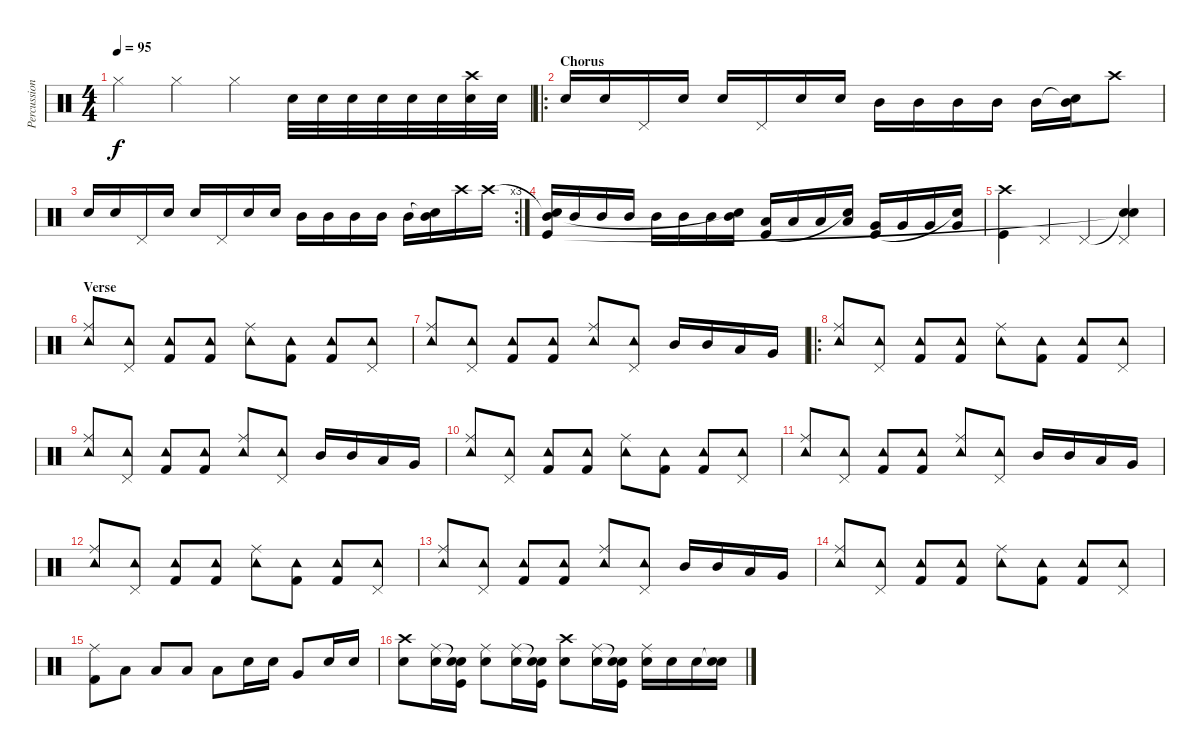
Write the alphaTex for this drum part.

\track ("Percussions" "Percussion") {instrument percussion}
\staff {score}
\articulation defaults
\ts (4 4)
\tempo 95
\clef neutral
\ks c "Hi-Hat (closed)".4{dy f} "Hi-Hat (closed)".4 "Hi-Hat (closed)".4 "Snare (hit) 2".32 "Snare (hit) 2".32 "Snare (hit) 2".32 "Snare (hit) 2".32 "Snare (hit) 2".32 "Snare (hit) 2".32
("Crash high (hit)" "Snare (hit) 2").32 "Snare (hit) 2".32 |
\ro
\section ("" "Chorus")
"Snare (hit) 2".16 "Snare (hit) 2".16 "Pedal Hi-Hat (hit)".16 "Snare (hit) 2".16 "Snare (hit) 2".16 "Pedal Hi-Hat (hit)".16 "Snare (hit) 2".16 "Snare (hit) 2".16 "Mid Tom (hit)".16 "Mid Tom (hit)".16 "Mid Tom (hit)".16 "Mid Tom (hit)".16 "Mid Tom (hit)".16 ("Snare (hit)"{t} "Mid Tom (hit)").16 "Crash high (hit)".8 |
\rc 3 "Snare (hit) 2".16 "Snare (hit) 2".16 "Pedal Hi-Hat (hit)".16 "Snare (hit) 2".16 "Snare (hit) 2".16 "Pedal Hi-Hat (hit)".16 "Snare (hit) 2".16 "Snare (hit) 2".16 "Mid Tom (hit)".16 "Mid Tom (hit)".16 "Mid Tom (hit)".16 "Mid Tom (hit)".16 "Mid Tom (hit)".16
("Snare (hit)"{t} "Mid Tom (hit)").16 "Crash high (hit)".16 "Crash high (hit)".16 |
("Snare (hit)"{t} "Mid Tom (hit)" "Kick (hit)").16 "Mid Tom (hit)".16 "Mid Tom (hit)".16 "Mid Tom (hit)".16 "Mid Tom (hit)".16 "Mid Tom (hit)".16 "Mid Tom (hit)".16 ("Mid Tom (hit)" "Snare (hit)"{t}).16 ("Low Tom (hit)" "Kick (hit)").16 "Low Tom (hit)".16 "Low Tom (hit)".16 ("Low Tom (hit)" "Snare (hit)"{t}).16 ("Very Low Tom (hit)" "Kick (hit)").16 "Very Low Tom (hit)".16 "Very Low Tom (hit)".16 ("Very Low Tom (hit)" "Snare (hit)"{t}).16 |
("Crash high (hit)" "Kick (hit)").4 "Pedal Hi-Hat (hit)".4 "Pedal Hi-Hat (hit)".4 ("Snare (hit)"{t} "Pedal Hi-Hat (hit)" "Snare (hit)"{t}).4 |
\section ("" "Verse")
("Ride (middle)" "Tambourine (hit)").8 ("Pedal Hi-Hat (hit)" "Tambourine (hit)").8 ("Tambourine (hit)" "Kick (hit) 2").8 ("Tambourine (hit)" "Kick (hit) 2").8 ("Ride (middle)" "Tambourine (hit)").8 ("Tambourine (hit)" "Kick (hit) 2").8 ("Tambourine (hit)" "Kick (hit) 2").8 ("Pedal Hi-Hat (hit)" "Tambourine (hit)").8 |
("Ride (middle)" "Tambourine (hit)").8 ("Pedal Hi-Hat (hit)" "Tambourine (hit)").8 ("Tambourine (hit)" "Kick (hit) 2").8 ("Tambourine (hit)" "Kick (hit) 2").8 ("Ride (middle)" "Tambourine (hit)").8 ("Pedal Hi-Hat (hit)" "Tambourine (hit)").8 "Mid Tom (hit)".16 "Mid Tom (hit)".16 "Low Tom (hit)".16 "Very Low Tom (hit)".16 |
\ro
("Ride (middle)" "Tambourine (hit)").8 ("Pedal Hi-Hat (hit)" "Tambourine (hit)").8 ("Tambourine (hit)" "Kick (hit) 2").8 ("Tambourine (hit)" "Kick (hit) 2").8 ("Ride (middle)" "Tambourine (hit)").8 ("Tambourine (hit)" "Kick (hit) 2").8 ("Tambourine (hit)" "Kick (hit) 2").8 ("Pedal Hi-Hat (hit)" "Tambourine (hit)").8 |
("Ride (middle)" "Tambourine (hit)").8 ("Pedal Hi-Hat (hit)" "Tambourine (hit)").8 ("Tambourine (hit)" "Kick (hit) 2").8 ("Tambourine (hit)" "Kick (hit) 2").8 ("Ride (middle)" "Tambourine (hit)").8 ("Pedal Hi-Hat (hit)" "Tambourine (hit)").8 "Mid Tom (hit)".16 "Mid Tom (hit)".16 "Low Tom (hit)".16 "Very Low Tom (hit)".16 |
("Ride (middle)" "Tambourine (hit)").8 ("Pedal Hi-Hat (hit)" "Tambourine (hit)").8 ("Tambourine (hit)" "Kick (hit) 2").8 ("Tambourine (hit)" "Kick (hit) 2").8 ("Ride (middle)" "Tambourine (hit)").8 ("Tambourine (hit)" "Kick (hit) 2").8 ("Tambourine (hit)" "Kick (hit) 2").8 ("Pedal Hi-Hat (hit)" "Tambourine (hit)").8 |
("Ride (middle)" "Tambourine (hit)").8 ("Pedal Hi-Hat (hit)" "Tambourine (hit)").8 ("Tambourine (hit)" "Kick (hit) 2").8 ("Tambourine (hit)" "Kick (hit) 2").8 ("Ride (middle)" "Tambourine (hit)").8 ("Pedal Hi-Hat (hit)" "Tambourine (hit)").8 "Mid Tom (hit)".16 "Mid Tom (hit)".16 "Low Tom (hit)".16 "Very Low Tom (hit)".16 |
("Ride (middle)" "Tambourine (hit)").8 ("Pedal Hi-Hat (hit)" "Tambourine (hit)").8 ("Tambourine (hit)" "Kick (hit) 2").8 ("Tambourine (hit)" "Kick (hit) 2").8 ("Ride (middle)" "Tambourine (hit)").8 ("Tambourine (hit)" "Kick (hit) 2").8 ("Tambourine (hit)" "Kick (hit) 2").8 ("Pedal Hi-Hat (hit)" "Tambourine (hit)").8 |
("Ride (middle)" "Tambourine (hit)").8 ("Pedal Hi-Hat (hit)" "Tambourine (hit)").8 ("Tambourine (hit)" "Kick (hit) 2").8 ("Tambourine (hit)" "Kick (hit) 2").8 ("Ride (middle)" "Tambourine (hit)").8 ("Pedal Hi-Hat (hit)" "Tambourine (hit)").8 "Mid Tom (hit)".16 "Mid Tom (hit)".16 "Low Tom (hit)".16 "Very Low Tom (hit)".16 |
("Ride (middle)" "Tambourine (hit)").8 ("Pedal Hi-Hat (hit)" "Tambourine (hit)").8 ("Tambourine (hit)" "Kick (hit) 2").8 ("Tambourine (hit)" "Kick (hit) 2").8 ("Ride (middle)" "Tambourine (hit)").8 ("Tambourine (hit)" "Kick (hit) 2").8 ("Tambourine (hit)" "Kick (hit) 2").8 ("Pedal Hi-Hat (hit)" "Tambourine (hit)").8 |
("Ride (middle)" "Kick (hit) 2").8 "Low Tom (hit)".8 "Low Tom (hit)".8 "Low Tom (hit)".8 "Low Tom (hit)".8 "Snare (hit) 2".16 "Snare (hit) 2".16 "Very Low Tom (hit)".8 "Snare (hit) 2".16 "Snare (hit) 2".16 |
("Crash high (hit)" "Snare (hit) 2").8 ("Ride (middle)" "Snare (hit) 2").16 ("Snare (hit)"{t} "Snare (hit) 2" "Kick (hit)").16 ("Ride (middle)" "Snare (hit) 2").8 ("Ride (middle)" "Snare (hit) 2").16 ("Snare (hit)"{t} "Snare (hit) 2" "Kick (hit)").16 ("Crash high (hit)" "Snare (hit) 2").8 ("Ride (middle)" "Snare (hit) 2").16 ("Snare (hit)"{t} "Snare (hit) 2" "Kick (hit)").16 ("Ride (middle)" "Snare (hit) 2").16 "Snare (hit) 2".16 "Snare (hit) 2".16 ("Snare (hit)"{t} "Snare (hit) 2").16
